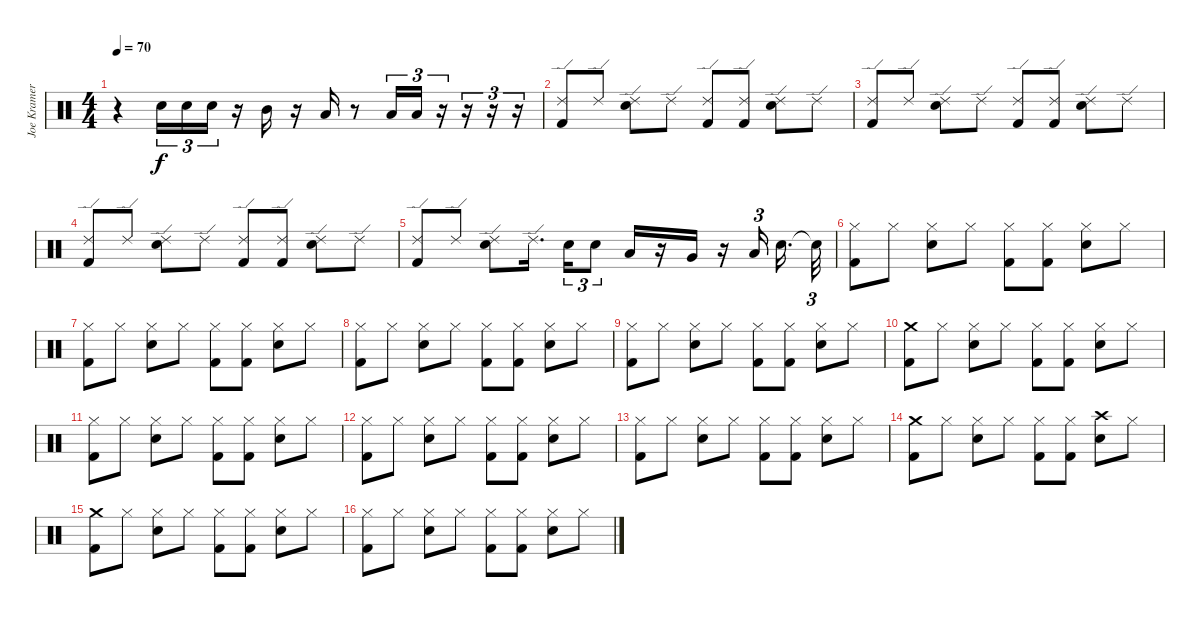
\track ("Joe Kramer" "Joe Kramer") {instrument percussion}
\staff {score}
\articulation defaults
\ts (4 4)
\tempo 70
\clef neutral
\ks c
r.4{dy f} "Snare (hit) 2".16{tu (3 2)} "Snare (hit) 2".16{tu (3 2)} "Snare (hit) 2".16{tu (3 2)} r.16 "Mid Tom (hit)".16 r.16 "Low Tom (hit)".16 r.8 "Low Floor Tom (hit)".16{tu (3 2)} "Low Floor Tom (hit)".16{tu (3 2)} r.16{tu (3 2)} r.16{tu (3 2)} r.16{tu (3 2)} r.16{tu (3 2)} |
("Ride (edge) 2" "Kick (hit) 2").8 "Ride (edge) 2".8 ("Ride (edge) 2" "Snare (hit) 2").8 "Ride (edge) 2".8 ("Ride (edge) 2" "Kick (hit) 2").8 ("Ride (edge) 2" "Kick (hit) 2").8 ("Ride (edge) 2" "Snare (hit) 2").8 "Ride (edge) 2".8 |
("Ride (edge) 2" "Kick (hit) 2").8 "Ride (edge) 2".8 ("Ride (edge) 2" "Snare (hit) 2").8 "Ride (edge) 2".8 ("Ride (edge) 2" "Kick (hit) 2").8 ("Ride (edge) 2" "Kick (hit) 2").8 ("Ride (edge) 2" "Snare (hit) 2").8 "Ride (edge) 2".8 |
("Ride (edge) 2" "Kick (hit) 2").8 "Ride (edge) 2".8 ("Ride (edge) 2" "Snare (hit) 2").8 "Ride (edge) 2".8 ("Ride (edge) 2" "Kick (hit) 2").8 ("Ride (edge) 2" "Kick (hit) 2").8 ("Ride (edge) 2" "Snare (hit) 2").8 "Ride (edge) 2".8 |
("Ride (edge) 2" "Kick (hit) 2").8 "Ride (edge) 2".8 ("Ride (edge) 2" "Snare (hit) 2").8 "Ride (edge) 2".16{d} "Snare (hit) 2".16{tu (3 2)} "Snare (hit) 2".8{tu (3 2)} "Low Tom (hit)".16 r.16 "Very Low Tom (hit)".16 r.16 "Low Floor Tom (hit)".16{tu (3 2)} "Snare (hit) 2".16{d} "Snare (hit) 2"{t}.32{tu (3 2)} |
("Hi-Hat (closed)" "Kick (hit) 2").8 "Hi-Hat (closed)".8 ("Hi-Hat (closed)" "Snare (hit) 2").8 "Hi-Hat (closed)".8 ("Hi-Hat (closed)" "Kick (hit) 2").8 ("Hi-Hat (closed)" "Kick (hit) 2").8 ("Hi-Hat (closed)" "Snare (hit) 2").8 "Hi-Hat (closed)".8 |
("Hi-Hat (closed)" "Kick (hit) 2").8 "Hi-Hat (closed)".8 ("Hi-Hat (closed)" "Snare (hit) 2").8 "Hi-Hat (closed)".8 ("Hi-Hat (closed)" "Kick (hit) 2").8 ("Hi-Hat (closed)" "Kick (hit) 2").8 ("Hi-Hat (closed)" "Snare (hit) 2").8 "Hi-Hat (closed)".8 |
("Hi-Hat (closed)" "Kick (hit) 2").8 "Hi-Hat (closed)".8 ("Hi-Hat (closed)" "Snare (hit) 2").8 "Hi-Hat (closed)".8 ("Hi-Hat (closed)" "Kick (hit) 2").8 ("Hi-Hat (closed)" "Kick (hit) 2").8 ("Hi-Hat (closed)" "Snare (hit) 2").8 "Hi-Hat (closed)".8 |
("Hi-Hat (closed)" "Kick (hit) 2").8 "Hi-Hat (closed)".8 ("Hi-Hat (closed)" "Snare (hit) 2").8 "Hi-Hat (closed)".8 ("Hi-Hat (closed)" "Kick (hit) 2").8 ("Hi-Hat (closed)" "Kick (hit) 2").8 ("Hi-Hat (closed)" "Snare (hit) 2").8 "Hi-Hat (closed)".8 |
("Crash medium (hit)" "Kick (hit) 2").8 "Hi-Hat (closed)".8 ("Hi-Hat (closed)" "Snare (hit) 2").8 "Hi-Hat (closed)".8 ("Hi-Hat (closed)" "Kick (hit) 2").8 ("Hi-Hat (closed)" "Kick (hit) 2").8 ("Hi-Hat (closed)" "Snare (hit) 2").8 "Hi-Hat (closed)".8 |
("Hi-Hat (closed)" "Kick (hit) 2").8 "Hi-Hat (closed)".8 ("Hi-Hat (closed)" "Snare (hit) 2").8 "Hi-Hat (closed)".8 ("Hi-Hat (closed)" "Kick (hit) 2").8 ("Hi-Hat (closed)" "Kick (hit) 2").8 ("Hi-Hat (closed)" "Snare (hit) 2").8 "Hi-Hat (closed)".8 |
("Hi-Hat (closed)" "Kick (hit) 2").8 "Hi-Hat (closed)".8 ("Hi-Hat (closed)" "Snare (hit) 2").8 "Hi-Hat (closed)".8 ("Hi-Hat (closed)" "Kick (hit) 2").8 ("Hi-Hat (closed)" "Kick (hit) 2").8 ("Hi-Hat (closed)" "Snare (hit) 2").8 "Hi-Hat (closed)".8 |
("Hi-Hat (closed)" "Kick (hit) 2").8 "Hi-Hat (closed)".8 ("Hi-Hat (closed)" "Snare (hit) 2").8 "Hi-Hat (closed)".8 ("Hi-Hat (closed)" "Kick (hit) 2").8 ("Hi-Hat (closed)" "Kick (hit) 2").8 ("Hi-Hat (closed)" "Snare (hit) 2").8 "Hi-Hat (closed)".8 |
("Crash medium (hit)" "Kick (hit) 2").8 "Hi-Hat (closed)".8 ("Hi-Hat (closed)" "Snare (hit) 2").8 "Hi-Hat (closed)".8 ("Hi-Hat (closed)" "Kick (hit) 2").8 ("Hi-Hat (closed)" "Kick (hit) 2").8 ("Crash high (hit)" "Snare (hit) 2").8 "Hi-Hat (closed)".8 |
("Crash medium (hit)" "Kick (hit) 2").8 "Hi-Hat (closed)".8 ("Hi-Hat (closed)" "Snare (hit) 2").8 "Hi-Hat (closed)".8 ("Hi-Hat (closed)" "Kick (hit) 2").8 ("Hi-Hat (closed)" "Kick (hit) 2").8 ("Hi-Hat (closed)" "Snare (hit) 2").8 "Hi-Hat (closed)".8 |
("Hi-Hat (closed)" "Kick (hit) 2").8 "Hi-Hat (closed)".8 ("Hi-Hat (closed)" "Snare (hit) 2").8 "Hi-Hat (closed)".8 ("Hi-Hat (closed)" "Kick (hit) 2").8 ("Hi-Hat (closed)" "Kick (hit) 2").8 ("Hi-Hat (closed)" "Snare (hit) 2").8 "Hi-Hat (closed)".8
